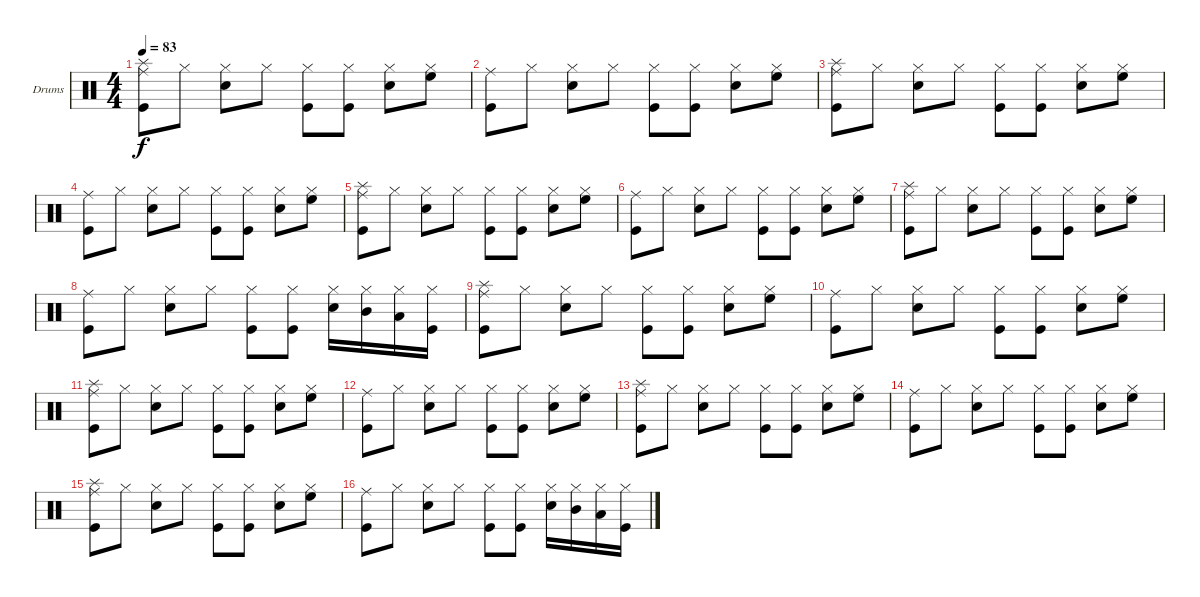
\defaultSystemsLayout 4
\bracketExtendMode groupsimilarinstruments
\firstSystemTrackNameOrientation horizontal
\otherSystemsTrackNameOrientation horizontal
\track ("Reza" "Drums") {instrument percussion}
\staff {score}
\articulation defaults
\ts (4 4)
\tempo 83
\clef neutral
\ks c
("Kick (hit)" "Splash (hit)" "Ride (middle)").8{dy f} "Hi-Hat (closed)".8 ("Hi-Hat (closed)" "Snare (hit) 2").8 "Hi-Hat (closed)".8 ("Hi-Hat (closed)" "Kick (hit)").8 ("Hi-Hat (closed)" "Kick (hit)").8 ("Hi-Hat (closed)" "Snare (hit) 2").8 ("Hi-Hat (closed)" "High Floor Tom (hit)").8 |
("Kick (hit)" "Ride (middle)").8 "Hi-Hat (closed)".8 ("Hi-Hat (closed)" "Snare (hit) 2").8 "Hi-Hat (closed)".8 ("Hi-Hat (closed)" "Kick (hit)").8 ("Hi-Hat (closed)" "Kick (hit)").8 ("Hi-Hat (closed)" "Snare (hit) 2").8 ("Hi-Hat (closed)" "High Floor Tom (hit)").8 |
("Kick (hit)" "Splash (hit)" "Ride (middle)").8 "Hi-Hat (closed)".8 ("Hi-Hat (closed)" "Snare (hit) 2").8 "Hi-Hat (closed)".8 ("Hi-Hat (closed)" "Kick (hit)").8 ("Hi-Hat (closed)" "Kick (hit)").8 ("Hi-Hat (closed)" "Snare (hit) 2").8 ("Hi-Hat (closed)" "High Floor Tom (hit)").8 |
("Kick (hit)" "Ride (middle)").8 "Hi-Hat (closed)".8 ("Hi-Hat (closed)" "Snare (hit) 2").8 "Hi-Hat (closed)".8 ("Hi-Hat (closed)" "Kick (hit)").8 ("Hi-Hat (closed)" "Kick (hit)").8 ("Hi-Hat (closed)" "Snare (hit) 2").8 ("Hi-Hat (closed)" "High Floor Tom (hit)").8 |
("Kick (hit)" "Splash (hit)" "Ride (middle)").8 "Hi-Hat (closed)".8 ("Hi-Hat (closed)" "Snare (hit) 2").8 "Hi-Hat (closed)".8 ("Hi-Hat (closed)" "Kick (hit)").8 ("Hi-Hat (closed)" "Kick (hit)").8 ("Hi-Hat (closed)" "Snare (hit) 2").8 ("Hi-Hat (closed)" "High Floor Tom (hit)").8 |
("Kick (hit)" "Ride (middle)").8 "Hi-Hat (closed)".8 ("Hi-Hat (closed)" "Snare (hit) 2").8 "Hi-Hat (closed)".8 ("Hi-Hat (closed)" "Kick (hit)").8 ("Hi-Hat (closed)" "Kick (hit)").8 ("Hi-Hat (closed)" "Snare (hit) 2").8 ("Hi-Hat (closed)" "High Floor Tom (hit)").8 |
("Kick (hit)" "Splash (hit)" "Ride (middle)").8 "Hi-Hat (closed)".8 ("Hi-Hat (closed)" "Snare (hit) 2").8 "Hi-Hat (closed)".8 ("Hi-Hat (closed)" "Kick (hit)").8 ("Hi-Hat (closed)" "Kick (hit)").8 ("Hi-Hat (closed)" "Snare (hit) 2").8 ("Hi-Hat (closed)" "High Floor Tom (hit)").8 |
("Kick (hit)" "Ride (middle)").8 "Hi-Hat (closed)".8 ("Hi-Hat (closed)" "Snare (hit) 2").8 "Hi-Hat (closed)".8 ("Hi-Hat (closed)" "Kick (hit)").8 ("Hi-Hat (closed)" "Kick (hit)").8 ("Hi-Hat (closed)" "Snare (hit) 2").16 ("Hi-Hat (closed)" "Mid Tom (hit)").16 ("Hi-Hat (closed)" "Low Tom (hit)").16 ("Hi-Hat (closed)" "Kick (hit)").16 |
("Kick (hit)" "Splash (hit)" "Ride (middle)").8 "Hi-Hat (closed)".8 ("Hi-Hat (closed)" "Snare (hit) 2").8 "Hi-Hat (closed)".8 ("Hi-Hat (closed)" "Kick (hit)").8 ("Hi-Hat (closed)" "Kick (hit)").8 ("Hi-Hat (closed)" "Snare (hit) 2").8 ("Hi-Hat (closed)" "High Floor Tom (hit)").8 |
("Kick (hit)" "Ride (middle)").8 "Hi-Hat (closed)".8 ("Hi-Hat (closed)" "Snare (hit) 2").8 "Hi-Hat (closed)".8 ("Hi-Hat (closed)" "Kick (hit)").8 ("Hi-Hat (closed)" "Kick (hit)").8 ("Hi-Hat (closed)" "Snare (hit) 2").8 ("Hi-Hat (closed)" "High Floor Tom (hit)").8 |
("Kick (hit)" "Splash (hit)" "Ride (middle)").8 "Hi-Hat (closed)".8 ("Hi-Hat (closed)" "Snare (hit) 2").8 "Hi-Hat (closed)".8 ("Hi-Hat (closed)" "Kick (hit)").8 ("Hi-Hat (closed)" "Kick (hit)").8 ("Hi-Hat (closed)" "Snare (hit) 2").8 ("Hi-Hat (closed)" "High Floor Tom (hit)").8 |
("Kick (hit)" "Ride (middle)").8 "Hi-Hat (closed)".8 ("Hi-Hat (closed)" "Snare (hit) 2").8 "Hi-Hat (closed)".8 ("Hi-Hat (closed)" "Kick (hit)").8 ("Hi-Hat (closed)" "Kick (hit)").8 ("Hi-Hat (closed)" "Snare (hit) 2").8 ("Hi-Hat (closed)" "High Floor Tom (hit)").8 |
("Kick (hit)" "Splash (hit)" "Ride (middle)").8 "Hi-Hat (closed)".8 ("Hi-Hat (closed)" "Snare (hit) 2").8 "Hi-Hat (closed)".8 ("Hi-Hat (closed)" "Kick (hit)").8 ("Hi-Hat (closed)" "Kick (hit)").8 ("Hi-Hat (closed)" "Snare (hit) 2").8 ("Hi-Hat (closed)" "High Floor Tom (hit)").8 |
("Kick (hit)" "Ride (middle)").8 "Hi-Hat (closed)".8 ("Hi-Hat (closed)" "Snare (hit) 2").8 "Hi-Hat (closed)".8 ("Hi-Hat (closed)" "Kick (hit)").8 ("Hi-Hat (closed)" "Kick (hit)").8 ("Hi-Hat (closed)" "Snare (hit) 2").8 ("Hi-Hat (closed)" "High Floor Tom (hit)").8 |
("Kick (hit)" "Splash (hit)" "Ride (middle)").8 "Hi-Hat (closed)".8 ("Hi-Hat (closed)" "Snare (hit) 2").8 "Hi-Hat (closed)".8 ("Hi-Hat (closed)" "Kick (hit)").8 ("Hi-Hat (closed)" "Kick (hit)").8 ("Hi-Hat (closed)" "Snare (hit) 2").8 ("Hi-Hat (closed)" "High Floor Tom (hit)").8 |
("Kick (hit)" "Ride (middle)").8 "Hi-Hat (closed)".8 ("Hi-Hat (closed)" "Snare (hit) 2").8 "Hi-Hat (closed)".8 ("Hi-Hat (closed)" "Kick (hit)").8 ("Hi-Hat (closed)" "Kick (hit)").8 ("Hi-Hat (closed)" "Snare (hit) 2").16 ("Hi-Hat (closed)" "Mid Tom (hit)").16 ("Hi-Hat (closed)" "Low Tom (hit)").16 ("Hi-Hat (closed)" "Kick (hit)").16
